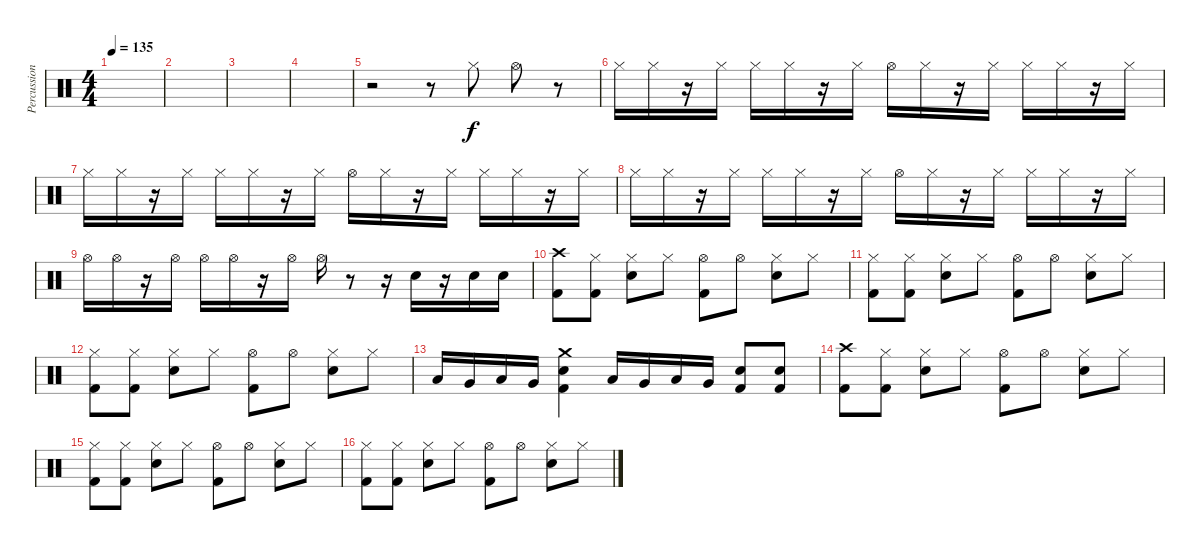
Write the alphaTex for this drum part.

\track ("Percussion" "Percussion") {instrument percussion}
\staff {score}
\articulation defaults
\ts (4 4)
\tempo 135
\clef neutral
\ks c
|
|
|
|
r.2 r.8 "Hi-Hat (closed)".8 "Hi-Hat (open)".8 r.8 |
"Hi-Hat (closed)".16 "Hi-Hat (closed)".16 r.16 "Hi-Hat (closed)".16 "Hi-Hat (closed)".16 "Hi-Hat (closed)".16 r.16 "Hi-Hat (closed)".16 "Hi-Hat (open)".16 "Hi-Hat (closed)".16 r.16 "Hi-Hat (closed)".16 "Hi-Hat (closed)".16 "Hi-Hat (closed)".16 r.16 "Hi-Hat (closed)".16 |
"Hi-Hat (closed)".16 "Hi-Hat (closed)".16 r.16 "Hi-Hat (closed)".16 "Hi-Hat (closed)".16 "Hi-Hat (closed)".16 r.16 "Hi-Hat (closed)".16 "Hi-Hat (open)".16 "Hi-Hat (closed)".16 r.16 "Hi-Hat (closed)".16 "Hi-Hat (closed)".16 "Hi-Hat (closed)".16 r.16 "Hi-Hat (closed)".16 |
"Hi-Hat (closed)".16 "Hi-Hat (closed)".16 r.16 "Hi-Hat (closed)".16 "Hi-Hat (closed)".16 "Hi-Hat (closed)".16 r.16 "Hi-Hat (closed)".16 "Hi-Hat (open)".16 "Hi-Hat (closed)".16 r.16 "Hi-Hat (closed)".16 "Hi-Hat (closed)".16 "Hi-Hat (closed)".16 r.16 "Hi-Hat (closed)".16 |
"Hi-Hat (open)".16 "Hi-Hat (open)".16 r.16 "Hi-Hat (open)".16 "Hi-Hat (open)".16 "Hi-Hat (open)".16 r.16 "Hi-Hat (open)".16 "Hi-Hat (open)".16 r.8 r.16 "Snare (hit) 2".16 r.16 "Snare (hit) 2".16 "Snare (hit) 2".16 |
("Crash high (hit)" "Kick (hit) 2").8 ("Hi-Hat (closed)" "Kick (hit) 2").8 ("Hi-Hat (closed)" "Snare (hit) 2").8 "Hi-Hat (closed)".8 ("Hi-Hat (open)" "Kick (hit) 2").8 "Hi-Hat (open)".8 ("Hi-Hat (closed)" "Snare (hit) 2").8 "Hi-Hat (closed)".8 |
("Hi-Hat (closed)" "Kick (hit) 2").8 ("Hi-Hat (closed)" "Kick (hit) 2").8 ("Hi-Hat (closed)" "Snare (hit) 2").8 "Hi-Hat (closed)".8 ("Hi-Hat (open)" "Kick (hit) 2").8 "Hi-Hat (open)".8 ("Hi-Hat (closed)" "Snare (hit) 2").8 "Hi-Hat (closed)".8 |
("Hi-Hat (closed)" "Kick (hit) 2").8 ("Hi-Hat (closed)" "Kick (hit) 2").8 ("Hi-Hat (closed)" "Snare (hit) 2").8 "Hi-Hat (closed)".8 ("Hi-Hat (open)" "Kick (hit) 2").8 "Hi-Hat (open)".8 ("Hi-Hat (closed)" "Snare (hit) 2").8 "Hi-Hat (closed)".8 |
"Low Floor Tom (hit)".16 "Very Low Tom (hit)".16 "Low Floor Tom (hit)".16 "Very Low Tom (hit)".16 ("Crash medium (hit)" "Snare (hit) 2" "Kick (hit) 2").4 "Low Floor Tom (hit)".16 "Very Low Tom (hit)".16 "Low Floor Tom (hit)".16 "Very Low Tom (hit)".16 ("Snare (hit) 2" "Kick (hit) 2").8 ("Snare (hit) 2" "Kick (hit) 2").8 |
("Crash high (hit)" "Kick (hit) 2").8 ("Hi-Hat (closed)" "Kick (hit) 2").8 ("Hi-Hat (closed)" "Snare (hit) 2").8 "Hi-Hat (closed)".8 ("Hi-Hat (open)" "Kick (hit) 2").8 "Hi-Hat (open)".8 ("Hi-Hat (closed)" "Snare (hit) 2").8 "Hi-Hat (closed)".8 |
("Hi-Hat (closed)" "Kick (hit) 2").8 ("Hi-Hat (closed)" "Kick (hit) 2").8 ("Hi-Hat (closed)" "Snare (hit) 2").8 "Hi-Hat (closed)".8 ("Hi-Hat (open)" "Kick (hit) 2").8 "Hi-Hat (open)".8 ("Hi-Hat (closed)" "Snare (hit) 2").8 "Hi-Hat (closed)".8 |
("Hi-Hat (closed)" "Kick (hit) 2").8 ("Hi-Hat (closed)" "Kick (hit) 2").8 ("Hi-Hat (closed)" "Snare (hit) 2").8 "Hi-Hat (closed)".8 ("Hi-Hat (open)" "Kick (hit) 2").8 "Hi-Hat (open)".8 ("Hi-Hat (closed)" "Snare (hit) 2").8 "Hi-Hat (closed)".8
